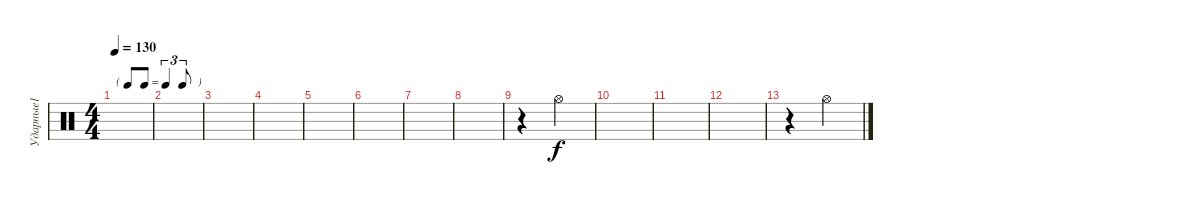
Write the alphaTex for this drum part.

\track ("Ударные1" "Ударные1") {instrument percussion}
\staff {score}
\articulation defaults
\ts (4 4)
\tf triplet8th
\tempo 130
\clef neutral
\ks c
|
|
|
|
|
|
|
|
r.4 "Hi-Hat (open)".4 |
|
|
|
r.4 "Hi-Hat (open)".4
